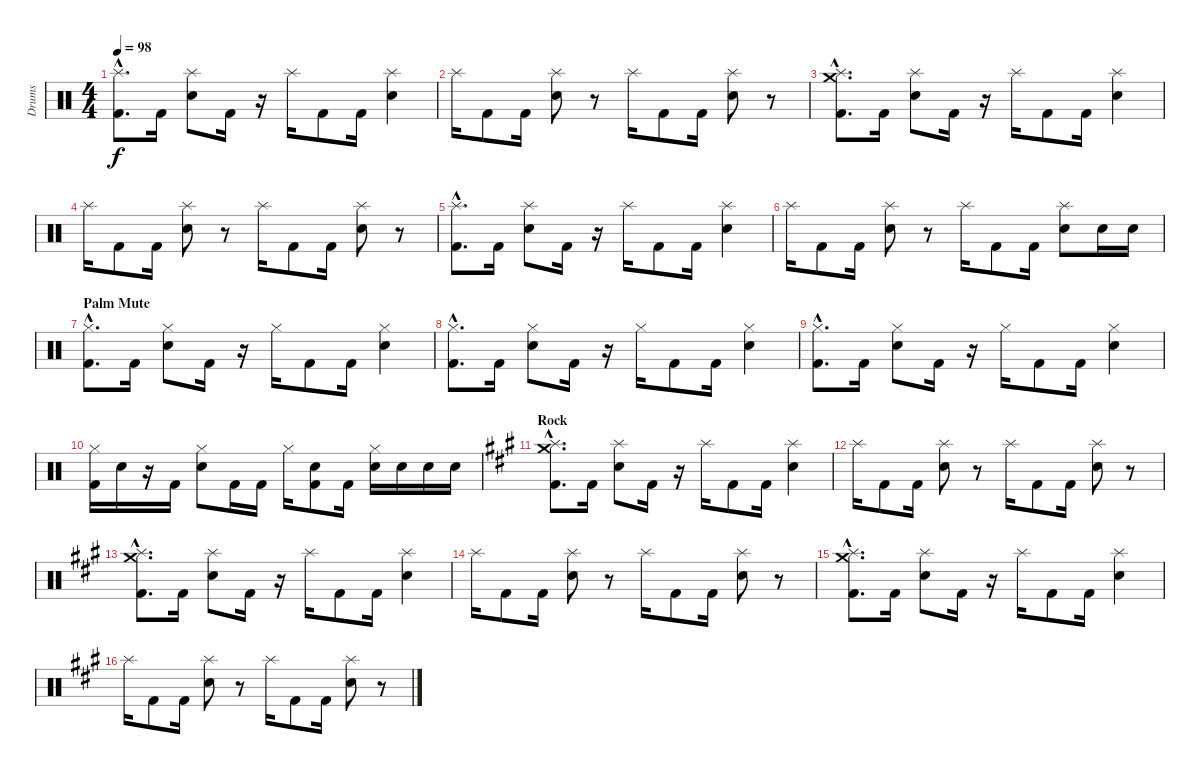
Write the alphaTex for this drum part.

\track ("Drums" "Drums") {instrument percussion}
\staff {score}
\articulation defaults
\ts (4 4)
\tempo 98
\clef neutral
\ks c
("Splash (hit)"{hac} "Kick (hit) 2"{hac}).8{d dy f} "Kick (hit) 2".16 ("Splash (hit)" "Snare (hit) 2").8 "Kick (hit) 2".16 r.16 "Splash (hit)".16 "Kick (hit) 2".8 "Kick (hit) 2".16 ("Splash (hit)" "Snare (hit) 2").4 |
"Splash (hit)".16 "Kick (hit) 2".8 "Kick (hit) 2".16 ("Splash (hit)" "Snare (hit) 2").8 r.8 "Splash (hit)".16 "Kick (hit) 2".8 "Kick (hit) 2".16 ("Splash (hit)" "Snare (hit) 2").8 r.8 |
("Splash (hit)"{hac} "Crash medium (hit)"{hac} "Kick (hit) 2"{hac}).8{d} "Kick (hit) 2".16 ("Splash (hit)" "Snare (hit) 2").8 "Kick (hit) 2".16 r.16 "Splash (hit)".16 "Kick (hit) 2".8 "Kick (hit) 2".16 ("Splash (hit)" "Snare (hit) 2").4 |
"Splash (hit)".16 "Kick (hit) 2".8 "Kick (hit) 2".16 ("Splash (hit)" "Snare (hit) 2").8 r.8 "Splash (hit)".16 "Kick (hit) 2".8 "Kick (hit) 2".16 ("Splash (hit)" "Snare (hit) 2").8 r.8 |
("Splash (hit)"{hac} "Kick (hit) 2"{hac}).8{d} "Kick (hit) 2".16 ("Splash (hit)" "Snare (hit) 2").8 "Kick (hit) 2".16 r.16 "Splash (hit)".16 "Kick (hit) 2".8 "Kick (hit) 2".16 ("Splash (hit)" "Snare (hit) 2").4 |
"Splash (hit)".16 "Kick (hit) 2".8 "Kick (hit) 2".16 ("Splash (hit)" "Snare (hit) 2").8 r.8 "Splash (hit)".16 "Kick (hit) 2".8 "Kick (hit) 2".16 ("Splash (hit)" "Snare (hit) 2").8 "Snare (hit) 2".16 "Snare (hit) 2".16 |
\section ("" "Palm Mute")
("Hi-Hat (closed)"{hac} "Kick (hit) 2"{hac}).8{d} "Kick (hit) 2".16 ("Hi-Hat (closed)" "Snare (hit) 2").8 "Kick (hit) 2".16 r.16 "Hi-Hat (closed)".16 "Kick (hit) 2".8 "Kick (hit) 2".16 ("Hi-Hat (closed)" "Snare (hit) 2").4 |
("Hi-Hat (closed)"{hac} "Kick (hit) 2"{hac}).8{d} "Kick (hit) 2".16 ("Hi-Hat (closed)" "Snare (hit) 2").8 "Kick (hit) 2".16 r.16 "Hi-Hat (closed)".16 "Kick (hit) 2".8 "Kick (hit) 2".16 ("Hi-Hat (closed)" "Snare (hit) 2").4 |
("Hi-Hat (closed)"{hac} "Kick (hit) 2"{hac}).8{d} "Kick (hit) 2".16 ("Hi-Hat (closed)" "Snare (hit) 2").8 "Kick (hit) 2".16 r.16 "Hi-Hat (closed)".16 "Kick (hit) 2".8 "Kick (hit) 2".16 ("Hi-Hat (closed)" "Snare (hit) 2").4 |
("Hi-Hat (closed)" "Kick (hit) 2").16 "Snare (hit) 2".16 r.16 "Kick (hit) 2".16 ("Hi-Hat (closed)" "Snare (hit) 2").8 "Kick (hit) 2".16 "Kick (hit) 2".16 "Hi-Hat (closed)".16 ("Snare (hit) 2" "Kick (hit) 2").8 "Kick (hit) 2".16 ("Hi-Hat (closed)" "Snare (hit) 2").16 "Snare (hit) 2".16 "Snare (hit) 2".16 "Snare (hit) 2".16 |
\section ("" "Rock")
\ks a
("Splash (hit)"{hac} "Crash medium (hit)"{hac} "Kick (hit) 2"{hac}).8{d} "Kick (hit) 2".16 ("Splash (hit)" "Snare (hit) 2").8 "Kick (hit) 2".16 r.16 "Splash (hit)".16 "Kick (hit) 2".8 "Kick (hit) 2".16 ("Splash (hit)" "Snare (hit) 2").4 |
"Splash (hit)".16 "Kick (hit) 2".8 "Kick (hit) 2".16 ("Splash (hit)" "Snare (hit) 2").8 r.8 "Splash (hit)".16 "Kick (hit) 2".8 "Kick (hit) 2".16 ("Splash (hit)" "Snare (hit) 2").8 r.8 |
("Splash (hit)"{hac} "Crash medium (hit)"{hac} "Kick (hit) 2"{hac}).8{d} "Kick (hit) 2".16 ("Splash (hit)" "Snare (hit) 2").8 "Kick (hit) 2".16 r.16 "Splash (hit)".16 "Kick (hit) 2".8 "Kick (hit) 2".16 ("Splash (hit)" "Snare (hit) 2").4 |
"Splash (hit)".16 "Kick (hit) 2".8 "Kick (hit) 2".16 ("Splash (hit)" "Snare (hit) 2").8 r.8 "Splash (hit)".16 "Kick (hit) 2".8 "Kick (hit) 2".16 ("Splash (hit)" "Snare (hit) 2").8 r.8 |
("Splash (hit)"{hac} "Crash medium (hit)"{hac} "Kick (hit) 2"{hac}).8{d} "Kick (hit) 2".16 ("Splash (hit)" "Snare (hit) 2").8 "Kick (hit) 2".16 r.16 "Splash (hit)".16 "Kick (hit) 2".8 "Kick (hit) 2".16 ("Splash (hit)" "Snare (hit) 2").4 |
"Splash (hit)".16 "Kick (hit) 2".8 "Kick (hit) 2".16 ("Splash (hit)" "Snare (hit) 2").8 r.8 "Splash (hit)".16 "Kick (hit) 2".8 "Kick (hit) 2".16 ("Splash (hit)" "Snare (hit) 2").8 r.8
